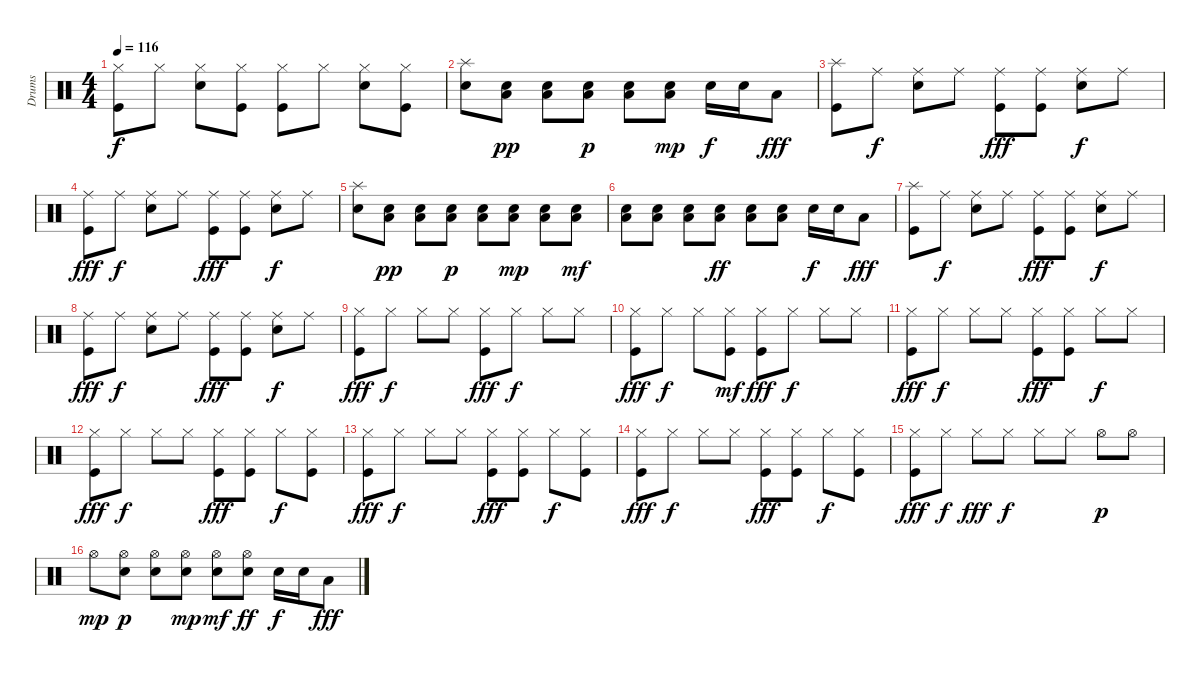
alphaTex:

\track ("Drums" "Drums") {instrument percussion}
\staff {score}
\articulation defaults
\ts (4 4)
\tempo 116
\clef neutral
\ks c
("Hi-Hat (closed)" "Kick (hit)").8{dy f} "Hi-Hat (closed)".8 ("Hi-Hat (closed)" "Snare (hit) 2").8 ("Hi-Hat (closed)" "Kick (hit)").8 ("Hi-Hat (closed)" "Kick (hit)").8 "Hi-Hat (closed)".8 ("Hi-Hat (closed)" "Snare (hit) 2").8 ("Hi-Hat (closed)" "Kick (hit)").8 |
("Splash (hit)" "Snare (hit) 2").8 ("Low Tom (hit)" "Snare (hit) 2").8{dy pp} ("Low Tom (hit)" "Snare (hit) 2").8 ("Low Tom (hit)" "Snare (hit) 2").8{dy p} ("Low Tom (hit)" "Snare (hit) 2").8 ("Low Tom (hit)" "Snare (hit) 2").8{dy mp} "Snare (hit) 2".16{dy f} "Snare (hit) 2".16 "Low Tom (hit)".8{dy fff} |
("Splash (hit)" "Kick (hit)").8 "Ride (middle)".8{dy f} ("Ride (middle)" "Snare (hit) 2").8 "Ride (middle)".8 ("Ride (middle)" "Kick (hit)").8{dy fff} ("Ride (middle)" "Kick (hit)").8 ("Ride (middle)" "Snare (hit) 2").8{dy f} "Ride (middle)".8 |
("Ride (middle)" "Kick (hit)").8{dy fff} "Ride (middle)".8{dy f} ("Ride (middle)" "Snare (hit) 2").8 "Ride (middle)".8 ("Ride (middle)" "Kick (hit)").8{dy fff} ("Ride (middle)" "Kick (hit)").8 ("Ride (middle)" "Snare (hit) 2").8{dy f} "Ride (middle)".8 |
("Splash (hit)" "Snare (hit) 2").8 ("Low Tom (hit)" "Snare (hit) 2").8{dy pp} ("Low Tom (hit)" "Snare (hit) 2").8 ("Low Tom (hit)" "Snare (hit) 2").8{dy p} ("Low Tom (hit)" "Snare (hit) 2").8 ("Low Tom (hit)" "Snare (hit) 2").8{dy mp} ("Low Tom (hit)" "Snare (hit) 2").8 ("Low Tom (hit)" "Snare (hit) 2").8{dy mf} |
("Low Tom (hit)" "Snare (hit) 2").8 ("Low Tom (hit)" "Snare (hit) 2").8 ("Low Tom (hit)" "Snare (hit) 2").8 ("Low Tom (hit)" "Snare (hit) 2").8{dy ff} ("Low Tom (hit)" "Snare (hit) 2").8 ("Low Tom (hit)" "Snare (hit) 2").8 "Snare (hit) 2".16{dy f} "Snare (hit) 2".16 "Low Tom (hit)".8{dy fff} |
("Splash (hit)" "Kick (hit)").8 "Ride (middle)".8{dy f} ("Ride (middle)" "Snare (hit) 2").8 "Ride (middle)".8 ("Ride (middle)" "Kick (hit)").8{dy fff} ("Ride (middle)" "Kick (hit)").8 ("Ride (middle)" "Snare (hit) 2").8{dy f} "Ride (middle)".8 |
("Ride (middle)" "Kick (hit)").8{dy fff} "Ride (middle)".8{dy f} ("Ride (middle)" "Snare (hit) 2").8 "Ride (middle)".8 ("Ride (middle)" "Kick (hit)").8{dy fff} ("Ride (middle)" "Kick (hit)").8 ("Ride (middle)" "Snare (hit) 2").8{dy f} "Ride (middle)".8 |
("Hi-Hat (closed)" "Kick (hit)").8{dy fff} "Hi-Hat (closed)".8{dy f} "Hi-Hat (closed)".8 "Hi-Hat (closed)".8 ("Hi-Hat (closed)" "Kick (hit)").8{dy fff} "Hi-Hat (closed)".8{dy f} "Hi-Hat (closed)".8 "Hi-Hat (closed)".8 |
("Hi-Hat (closed)" "Kick (hit)").8{dy fff} "Hi-Hat (closed)".8{dy f} "Hi-Hat (closed)".8 ("Hi-Hat (closed)" "Kick (hit)").8{dy mf} ("Hi-Hat (closed)" "Kick (hit)").8{dy fff} "Hi-Hat (closed)".8{dy f} "Hi-Hat (closed)".8 "Hi-Hat (closed)".8 |
("Hi-Hat (closed)" "Kick (hit)").8{dy fff} "Hi-Hat (closed)".8{dy f} "Hi-Hat (closed)".8 "Hi-Hat (closed)".8 ("Hi-Hat (closed)" "Kick (hit)").8{dy fff} ("Hi-Hat (closed)" "Kick (hit)").8 "Hi-Hat (closed)".8{dy f} "Hi-Hat (closed)".8 |
("Hi-Hat (closed)" "Kick (hit)").8{dy fff} "Hi-Hat (closed)".8{dy f} "Hi-Hat (closed)".8 "Hi-Hat (closed)".8 ("Hi-Hat (closed)" "Kick (hit)").8{dy fff} ("Hi-Hat (closed)" "Kick (hit)").8 "Hi-Hat (closed)".8{dy f} ("Hi-Hat (closed)" "Kick (hit)").8 |
("Hi-Hat (closed)" "Kick (hit)").8{dy fff} "Hi-Hat (closed)".8{dy f} "Hi-Hat (closed)".8 "Hi-Hat (closed)".8 ("Hi-Hat (closed)" "Kick (hit)").8{dy fff} ("Hi-Hat (closed)" "Kick (hit)").8 "Hi-Hat (closed)".8{dy f} ("Hi-Hat (closed)" "Kick (hit)").8 |
("Hi-Hat (closed)" "Kick (hit)").8{dy fff} "Hi-Hat (closed)".8{dy f} "Hi-Hat (closed)".8 "Hi-Hat (closed)".8 ("Hi-Hat (closed)" "Kick (hit)").8{dy fff} ("Hi-Hat (closed)" "Kick (hit)").8 "Hi-Hat (closed)".8{dy f} ("Hi-Hat (closed)" "Kick (hit)").8 |
("Hi-Hat (closed)" "Kick (hit)").8{dy fff} "Hi-Hat (closed)".8{dy f} "Hi-Hat (closed)".8{dy fff} "Hi-Hat (closed)".8{dy f} "Hi-Hat (closed)".8 "Hi-Hat (closed)".8 "Hi-Hat (open)".8{dy p} "Hi-Hat (open)".8 |
"Hi-Hat (open)".8{dy mp} ("Hi-Hat (open)" "Snare (hit) 2").8{dy p} ("Hi-Hat (open)" "Snare (hit) 2").8 ("Hi-Hat (open)" "Snare (hit) 2").8{dy mp} ("Hi-Hat (open)" "Snare (hit) 2").8{dy mf} ("Hi-Hat (open)" "Snare (hit) 2").8{dy ff} "Snare (hit) 2".16{dy f} "Snare (hit) 2".16 "Low Tom (hit)".8{dy fff}
